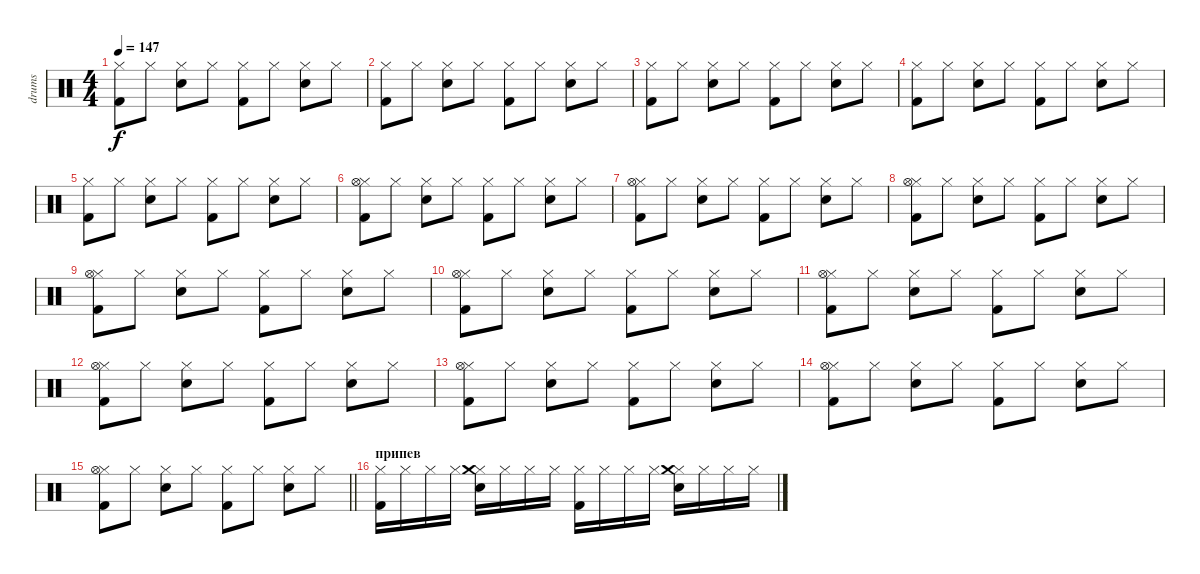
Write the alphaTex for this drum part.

\track ("drums" "drums") {instrument percussion}
\staff {score}
\articulation defaults
\ts (4 4)
\tempo 147
\clef neutral
\ks c
("Hi-Hat (closed)" "Kick (hit) 2").8{dy f} "Hi-Hat (closed)".8 ("Hi-Hat (closed)" "Snare (hit) 2").8 "Hi-Hat (closed)".8 ("Hi-Hat (closed)" "Kick (hit) 2").8 "Hi-Hat (closed)".8 ("Hi-Hat (closed)" "Snare (hit) 2").8 "Hi-Hat (closed)".8 |
("Hi-Hat (closed)" "Kick (hit) 2").8 "Hi-Hat (closed)".8 ("Hi-Hat (closed)" "Snare (hit) 2").8 "Hi-Hat (closed)".8 ("Hi-Hat (closed)" "Kick (hit) 2").8 "Hi-Hat (closed)".8 ("Hi-Hat (closed)" "Snare (hit) 2").8 "Hi-Hat (closed)".8 |
("Hi-Hat (closed)" "Kick (hit) 2").8 "Hi-Hat (closed)".8 ("Hi-Hat (closed)" "Snare (hit) 2").8 "Hi-Hat (closed)".8 ("Hi-Hat (closed)" "Kick (hit) 2").8 "Hi-Hat (closed)".8 ("Hi-Hat (closed)" "Snare (hit) 2").8 "Hi-Hat (closed)".8 |
("Hi-Hat (closed)" "Kick (hit) 2").8 "Hi-Hat (closed)".8 ("Hi-Hat (closed)" "Snare (hit) 2").8 "Hi-Hat (closed)".8 ("Hi-Hat (closed)" "Kick (hit) 2").8 "Hi-Hat (closed)".8 ("Hi-Hat (closed)" "Snare (hit) 2").8 "Hi-Hat (closed)".8 |
("Hi-Hat (closed)" "Kick (hit) 2").8 "Hi-Hat (closed)".8 ("Hi-Hat (closed)" "Snare (hit) 2").8 "Hi-Hat (closed)".8 ("Hi-Hat (closed)" "Kick (hit) 2").8 "Hi-Hat (closed)".8 ("Hi-Hat (closed)" "Snare (hit) 2").8 "Hi-Hat (closed)".8 |
("Hi-Hat (closed)" "Kick (hit) 2" "Hi-Hat (open)").8 "Hi-Hat (closed)".8 ("Hi-Hat (closed)" "Snare (hit) 2").8 "Hi-Hat (closed)".8 ("Hi-Hat (closed)" "Kick (hit) 2").8 "Hi-Hat (closed)".8 ("Hi-Hat (closed)" "Snare (hit) 2").8 "Hi-Hat (closed)".8 |
("Hi-Hat (closed)" "Kick (hit) 2" "Hi-Hat (open)").8 "Hi-Hat (closed)".8 ("Hi-Hat (closed)" "Snare (hit) 2").8 "Hi-Hat (closed)".8 ("Hi-Hat (closed)" "Kick (hit) 2").8 "Hi-Hat (closed)".8 ("Hi-Hat (closed)" "Snare (hit) 2").8 "Hi-Hat (closed)".8 |
("Hi-Hat (closed)" "Kick (hit) 2" "Hi-Hat (open)").8 "Hi-Hat (closed)".8 ("Hi-Hat (closed)" "Snare (hit) 2").8 "Hi-Hat (closed)".8 ("Hi-Hat (closed)" "Kick (hit) 2").8 "Hi-Hat (closed)".8 ("Hi-Hat (closed)" "Snare (hit) 2").8 "Hi-Hat (closed)".8 |
("Hi-Hat (closed)" "Kick (hit) 2" "Hi-Hat (open)").8 "Hi-Hat (closed)".8 ("Hi-Hat (closed)" "Snare (hit) 2").8 "Hi-Hat (closed)".8 ("Hi-Hat (closed)" "Kick (hit) 2").8 "Hi-Hat (closed)".8 ("Hi-Hat (closed)" "Snare (hit) 2").8 "Hi-Hat (closed)".8 |
("Hi-Hat (closed)" "Kick (hit) 2" "Hi-Hat (open)").8 "Hi-Hat (closed)".8 ("Hi-Hat (closed)" "Snare (hit) 2").8 "Hi-Hat (closed)".8 ("Hi-Hat (closed)" "Kick (hit) 2").8 "Hi-Hat (closed)".8 ("Hi-Hat (closed)" "Snare (hit) 2").8 "Hi-Hat (closed)".8 |
("Hi-Hat (closed)" "Kick (hit) 2" "Hi-Hat (open)").8 "Hi-Hat (closed)".8 ("Hi-Hat (closed)" "Snare (hit) 2").8 "Hi-Hat (closed)".8 ("Hi-Hat (closed)" "Kick (hit) 2").8 "Hi-Hat (closed)".8 ("Hi-Hat (closed)" "Snare (hit) 2").8 "Hi-Hat (closed)".8 |
("Hi-Hat (closed)" "Kick (hit) 2" "Hi-Hat (open)").8 "Hi-Hat (closed)".8 ("Hi-Hat (closed)" "Snare (hit) 2").8 "Hi-Hat (closed)".8 ("Hi-Hat (closed)" "Kick (hit) 2").8 "Hi-Hat (closed)".8 ("Hi-Hat (closed)" "Snare (hit) 2").8 "Hi-Hat (closed)".8 |
("Hi-Hat (closed)" "Kick (hit) 2" "Hi-Hat (open)").8 "Hi-Hat (closed)".8 ("Hi-Hat (closed)" "Snare (hit) 2").8 "Hi-Hat (closed)".8 ("Hi-Hat (closed)" "Kick (hit) 2").8 "Hi-Hat (closed)".8 ("Hi-Hat (closed)" "Snare (hit) 2").8 "Hi-Hat (closed)".8 |
("Hi-Hat (closed)" "Kick (hit) 2" "Hi-Hat (open)").8 "Hi-Hat (closed)".8 ("Hi-Hat (closed)" "Snare (hit) 2").8 "Hi-Hat (closed)".8 ("Hi-Hat (closed)" "Kick (hit) 2").8 "Hi-Hat (closed)".8 ("Hi-Hat (closed)" "Snare (hit) 2").8 "Hi-Hat (closed)".8 |
\barLineRight lightlight
("Hi-Hat (closed)" "Kick (hit) 2" "Hi-Hat (open)").8 "Hi-Hat (closed)".8 ("Hi-Hat (closed)" "Snare (hit) 2").8 "Hi-Hat (closed)".8 ("Hi-Hat (closed)" "Kick (hit) 2").8 "Hi-Hat (closed)".8 ("Hi-Hat (closed)" "Snare (hit) 2").8 "Hi-Hat (closed)".8 |
\section ("" "припев")
("Hi-Hat (closed)" "Kick (hit) 2").16 "Hi-Hat (closed)".16 "Hi-Hat (closed)".16 "Hi-Hat (closed)".16 ("Hi-Hat (closed)" "Snare (hit) 2" "Crash medium (hit)").16 "Hi-Hat (closed)".16 "Hi-Hat (closed)".16 "Hi-Hat (closed)".16 ("Hi-Hat (closed)" "Kick (hit) 2").16 "Hi-Hat (closed)".16 "Hi-Hat (closed)".16 "Hi-Hat (closed)".16 ("Hi-Hat (closed)" "Snare (hit) 2" "Crash medium (hit)").16 "Hi-Hat (closed)".16 "Hi-Hat (closed)".16 "Hi-Hat (closed)".16
